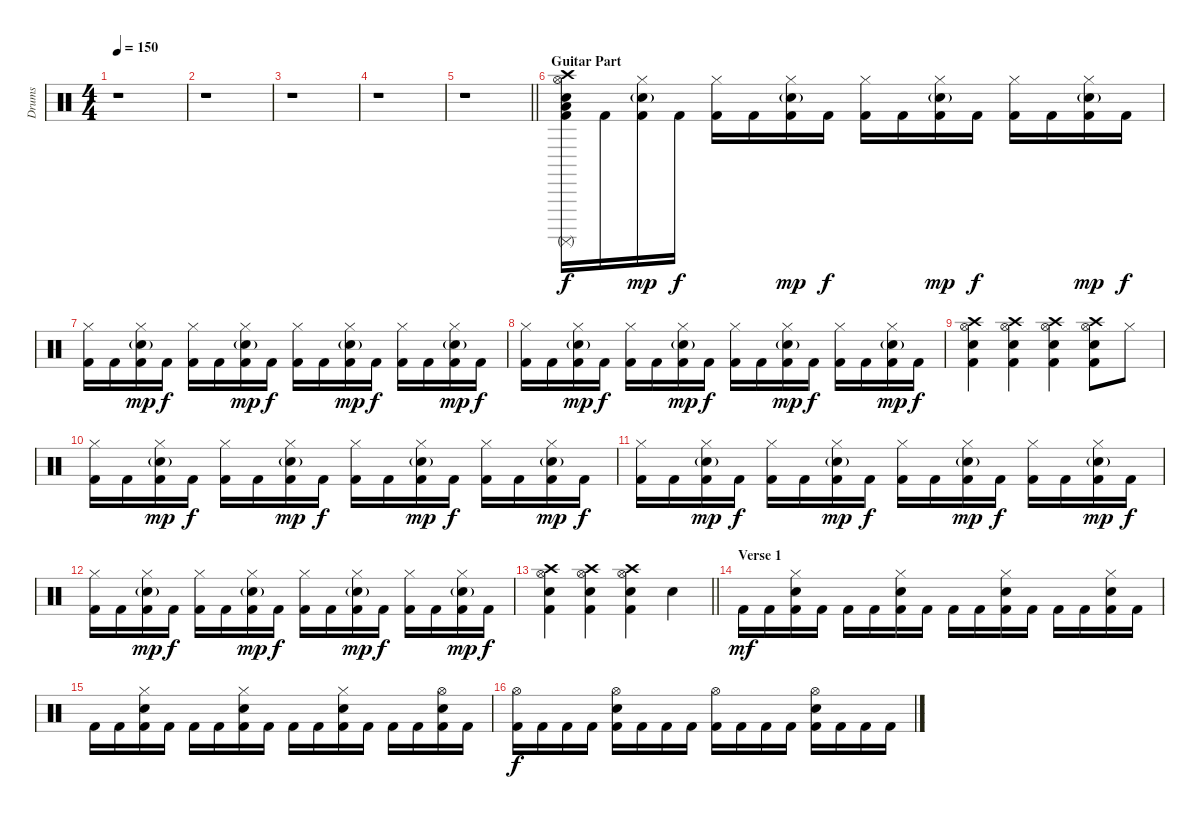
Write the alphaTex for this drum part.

\track ("Drums" "Drums") {instrument percussion}
\staff {score}
\articulation defaults
\ts (4 4)
\tempo 150
\clef neutral
\ks c
r.1{dy f} |
r.1 |
r.1 |
r.1 |
\barLineRight lightlight
r.1 |
\section ("" "Guitar Part")
("Crash high (hit)" "Hi-Hat (open)" "Electric Snare (hit)" "Low Floor Tom (hit)" "Surdo (mute)" "Kick (hit) 2").16 "Kick (hit) 2".16 ("Hi-Hat (closed)" "Electric Snare (hit)"{g} "Kick (hit) 2").16{dy mp} "Kick (hit) 2".16{dy f} ("Hi-Hat (closed)" "Kick (hit) 2").16 "Kick (hit) 2".16 ("Hi-Hat (closed)" "Electric Snare (hit)"{g} "Kick (hit) 2").16{dy mp} "Kick (hit) 2".16{dy f} ("Hi-Hat (closed)" "Kick (hit) 2").16 "Kick (hit) 2".16 ("Hi-Hat (closed)" "Electric Snare (hit)"{g} "Kick (hit) 2").16{dy mp} "Kick (hit) 2".16{dy f} ("Hi-Hat (closed)" "Kick (hit) 2").16 "Kick (hit) 2".16 ("Hi-Hat (closed)" "Electric Snare (hit)"{g} "Kick (hit) 2").16{dy mp} "Kick (hit) 2".16{dy f} |
("Hi-Hat (closed)" "Kick (hit) 2").16 "Kick (hit) 2".16 ("Hi-Hat (closed)" "Electric Snare (hit)"{g} "Kick (hit) 2").16{dy mp} "Kick (hit) 2".16{dy f} ("Hi-Hat (closed)" "Kick (hit) 2").16 "Kick (hit) 2".16 ("Hi-Hat (closed)" "Electric Snare (hit)"{g} "Kick (hit) 2").16{dy mp} "Kick (hit) 2".16{dy f} ("Hi-Hat (closed)" "Kick (hit) 2").16 "Kick (hit) 2".16 ("Hi-Hat (closed)" "Electric Snare (hit)"{g} "Kick (hit) 2").16{dy mp} "Kick (hit) 2".16{dy f} ("Hi-Hat (closed)" "Kick (hit) 2").16 "Kick (hit) 2".16 ("Hi-Hat (closed)" "Electric Snare (hit)"{g} "Kick (hit) 2").16{dy mp} "Kick (hit) 2".16{dy f} |
("Hi-Hat (closed)" "Kick (hit) 2").16 "Kick (hit) 2".16 ("Hi-Hat (closed)" "Electric Snare (hit)"{g} "Kick (hit) 2").16{dy mp} "Kick (hit) 2".16{dy f} ("Hi-Hat (closed)" "Kick (hit) 2").16 "Kick (hit) 2".16 ("Hi-Hat (closed)" "Electric Snare (hit)"{g} "Kick (hit) 2").16{dy mp} "Kick (hit) 2".16{dy f} ("Hi-Hat (closed)" "Kick (hit) 2").16 "Kick (hit) 2".16 ("Hi-Hat (closed)" "Electric Snare (hit)"{g} "Kick (hit) 2").16{dy mp} "Kick (hit) 2".16{dy f} ("Hi-Hat (closed)" "Kick (hit) 2").16 "Kick (hit) 2".16 ("Hi-Hat (closed)" "Electric Snare (hit)"{g} "Kick (hit) 2").16{dy mp} "Kick (hit) 2".16{dy f} |
("Crash high (hit)" "Hi-Hat (open)" "Electric Snare (hit)" "Kick (hit) 2").4 ("Crash high (hit)" "Hi-Hat (open)" "Electric Snare (hit)" "Kick (hit) 2").4 ("Crash high (hit)" "Hi-Hat (open)" "Electric Snare (hit)" "Kick (hit) 2").4 ("Crash high (hit)" "Hi-Hat (open)" "Electric Snare (hit)" "Kick (hit) 2").8 "Hi-Hat (closed)".8 |
("Hi-Hat (closed)" "Kick (hit) 2").16 "Kick (hit) 2".16 ("Hi-Hat (closed)" "Electric Snare (hit)"{g} "Kick (hit) 2").16{dy mp} "Kick (hit) 2".16{dy f} ("Hi-Hat (closed)" "Kick (hit) 2").16 "Kick (hit) 2".16 ("Hi-Hat (closed)" "Electric Snare (hit)"{g} "Kick (hit) 2").16{dy mp} "Kick (hit) 2".16{dy f} ("Hi-Hat (closed)" "Kick (hit) 2").16 "Kick (hit) 2".16 ("Hi-Hat (closed)" "Electric Snare (hit)"{g} "Kick (hit) 2").16{dy mp} "Kick (hit) 2".16{dy f} ("Hi-Hat (closed)" "Kick (hit) 2").16 "Kick (hit) 2".16 ("Hi-Hat (closed)" "Electric Snare (hit)"{g} "Kick (hit) 2").16{dy mp} "Kick (hit) 2".16{dy f} |
("Hi-Hat (closed)" "Kick (hit) 2").16 "Kick (hit) 2".16 ("Hi-Hat (closed)" "Electric Snare (hit)"{g} "Kick (hit) 2").16{dy mp} "Kick (hit) 2".16{dy f} ("Hi-Hat (closed)" "Kick (hit) 2").16 "Kick (hit) 2".16 ("Hi-Hat (closed)" "Electric Snare (hit)"{g} "Kick (hit) 2").16{dy mp} "Kick (hit) 2".16{dy f} ("Hi-Hat (closed)" "Kick (hit) 2").16 "Kick (hit) 2".16 ("Hi-Hat (closed)" "Electric Snare (hit)"{g} "Kick (hit) 2").16{dy mp} "Kick (hit) 2".16{dy f} ("Hi-Hat (closed)" "Kick (hit) 2").16 "Kick (hit) 2".16 ("Hi-Hat (closed)" "Electric Snare (hit)"{g} "Kick (hit) 2").16{dy mp} "Kick (hit) 2".16{dy f} |
("Hi-Hat (closed)" "Kick (hit) 2").16 "Kick (hit) 2".16 ("Hi-Hat (closed)" "Electric Snare (hit)"{g} "Kick (hit) 2").16{dy mp} "Kick (hit) 2".16{dy f} ("Hi-Hat (closed)" "Kick (hit) 2").16 "Kick (hit) 2".16 ("Hi-Hat (closed)" "Electric Snare (hit)"{g} "Kick (hit) 2").16{dy mp} "Kick (hit) 2".16{dy f} ("Hi-Hat (closed)" "Kick (hit) 2").16 "Kick (hit) 2".16 ("Hi-Hat (closed)" "Electric Snare (hit)"{g} "Kick (hit) 2").16{dy mp} "Kick (hit) 2".16{dy f} ("Hi-Hat (closed)" "Kick (hit) 2").16 "Kick (hit) 2".16 ("Hi-Hat (closed)" "Electric Snare (hit)"{g} "Kick (hit) 2").16{dy mp} "Kick (hit) 2".16{dy f} |
\barLineRight lightlight
("Crash high (hit)" "Hi-Hat (open)" "Electric Snare (hit)" "Kick (hit) 2").4 ("Crash high (hit)" "Hi-Hat (open)" "Electric Snare (hit)" "Kick (hit) 2").4 ("Crash high (hit)" "Hi-Hat (open)" "Electric Snare (hit)" "Kick (hit) 2").4 "Electric Snare (hit)".4 |
\section ("" "Verse 1")
"Kick (hit) 2".16{dy mf} "Kick (hit) 2".16 ("Hi-Hat (closed)" "Electric Snare (hit)" "Kick (hit) 2").16 "Kick (hit) 2".16 "Kick (hit) 2".16 "Kick (hit) 2".16 ("Hi-Hat (closed)" "Electric Snare (hit)" "Kick (hit) 2").16 "Kick (hit) 2".16 "Kick (hit) 2".16 "Kick (hit) 2".16 ("Hi-Hat (closed)" "Electric Snare (hit)" "Kick (hit) 2").16 "Kick (hit) 2".16 "Kick (hit) 2".16 "Kick (hit) 2".16 ("Hi-Hat (closed)" "Electric Snare (hit)" "Kick (hit) 2").16 "Kick (hit) 2".16 |
"Kick (hit) 2".16 "Kick (hit) 2".16 ("Hi-Hat (closed)" "Electric Snare (hit)" "Kick (hit) 2").16 "Kick (hit) 2".16 "Kick (hit) 2".16 "Kick (hit) 2".16 ("Hi-Hat (closed)" "Electric Snare (hit)" "Kick (hit) 2").16 "Kick (hit) 2".16 "Kick (hit) 2".16 "Kick (hit) 2".16 ("Hi-Hat (closed)" "Electric Snare (hit)" "Kick (hit) 2").16 "Kick (hit) 2".16 "Kick (hit) 2".16 "Kick (hit) 2".16 ("Hi-Hat (open)" "Electric Snare (hit)" "Kick (hit) 2").16 "Kick (hit) 2".16 |
("Hi-Hat (open)" "Kick (hit) 2").16{dy f} "Kick (hit) 2".16 "Kick (hit) 2".16 "Kick (hit) 2".16 ("Hi-Hat (open)" "Electric Snare (hit)" "Kick (hit) 2").16 "Kick (hit) 2".16 "Kick (hit) 2".16 "Kick (hit) 2".16 ("Hi-Hat (open)" "Kick (hit) 2").16 "Kick (hit) 2".16 "Kick (hit) 2".16 "Kick (hit) 2".16 ("Hi-Hat (open)" "Electric Snare (hit)" "Kick (hit) 2").16 "Kick (hit) 2".16 "Kick (hit) 2".16 "Kick (hit) 2".16
